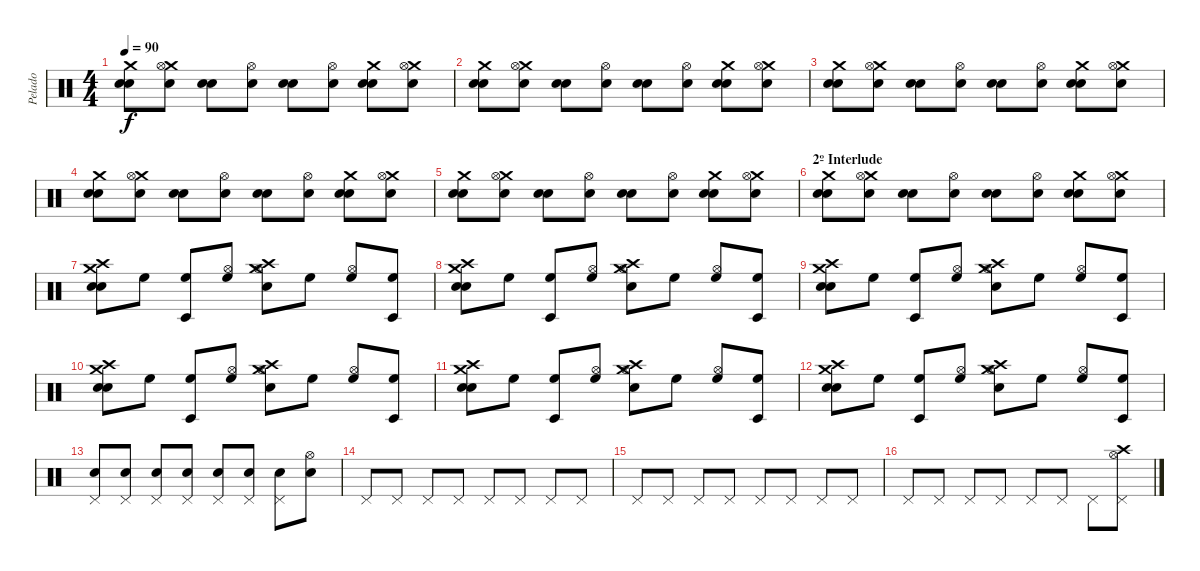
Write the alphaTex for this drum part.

\track ("Pelado" "Pelado") {instrument percussion}
\staff {score}
\articulation defaults
\ts (4 4)
\tempo 90
\clef neutral
\ks c
("Crash medium (hit)" "Electric Snare (hit)" "Electric Snare (hit)").8{dy f} ("Crash medium (hit)" "Hi-Hat (open)" "Electric Snare (hit)").8 ("Electric Snare (hit)" "Electric Snare (hit)").8 ("Electric Snare (hit)" "Hi-Hat (open)").8 ("Electric Snare (hit)" "Electric Snare (hit)").8 ("Electric Snare (hit)" "Hi-Hat (open)").8 ("Crash medium (hit)" "Electric Snare (hit)" "Electric Snare (hit)").8 ("Crash medium (hit)" "Electric Snare (hit)" "Hi-Hat (open)").8 |
("Crash medium (hit)" "Electric Snare (hit)" "Electric Snare (hit)").8 ("Crash medium (hit)" "Hi-Hat (open)" "Electric Snare (hit)").8 ("Electric Snare (hit)" "Electric Snare (hit)").8 ("Electric Snare (hit)" "Hi-Hat (open)").8 ("Electric Snare (hit)" "Electric Snare (hit)").8 ("Electric Snare (hit)" "Hi-Hat (open)").8 ("Crash medium (hit)" "Electric Snare (hit)" "Electric Snare (hit)").8 ("Crash medium (hit)" "Electric Snare (hit)" "Hi-Hat (open)").8 |
("Crash medium (hit)" "Electric Snare (hit)" "Electric Snare (hit)").8 ("Crash medium (hit)" "Hi-Hat (open)" "Electric Snare (hit)").8 ("Electric Snare (hit)" "Electric Snare (hit)").8 ("Electric Snare (hit)" "Hi-Hat (open)").8 ("Electric Snare (hit)" "Electric Snare (hit)").8 ("Electric Snare (hit)" "Hi-Hat (open)").8 ("Crash medium (hit)" "Electric Snare (hit)" "Electric Snare (hit)").8 ("Crash medium (hit)" "Electric Snare (hit)" "Hi-Hat (open)").8 |
("Crash medium (hit)" "Electric Snare (hit)" "Electric Snare (hit)").8 ("Crash medium (hit)" "Hi-Hat (open)" "Electric Snare (hit)").8 ("Electric Snare (hit)" "Electric Snare (hit)").8 ("Electric Snare (hit)" "Hi-Hat (open)").8 ("Electric Snare (hit)" "Electric Snare (hit)").8 ("Electric Snare (hit)" "Hi-Hat (open)").8 ("Crash medium (hit)" "Electric Snare (hit)" "Electric Snare (hit)").8 ("Crash medium (hit)" "Electric Snare (hit)" "Hi-Hat (open)").8 |
("Crash medium (hit)" "Electric Snare (hit)" "Electric Snare (hit)").8 ("Crash medium (hit)" "Hi-Hat (open)" "Electric Snare (hit)").8 ("Electric Snare (hit)" "Electric Snare (hit)").8 ("Electric Snare (hit)" "Hi-Hat (open)").8 ("Electric Snare (hit)" "Electric Snare (hit)").8 ("Electric Snare (hit)" "Hi-Hat (open)").8 ("Crash medium (hit)" "Electric Snare (hit)" "Electric Snare (hit)").8 ("Crash medium (hit)" "Electric Snare (hit)" "Hi-Hat (open)").8 |
\section ("" "2º Interlude")
("Crash medium (hit)" "Electric Snare (hit)" "Electric Snare (hit)").8 ("Crash medium (hit)" "Hi-Hat (open)" "Electric Snare (hit)").8 ("Electric Snare (hit)" "Electric Snare (hit)").8 ("Electric Snare (hit)" "Hi-Hat (open)").8 ("Electric Snare (hit)" "Electric Snare (hit)").8 ("Electric Snare (hit)" "Hi-Hat (open)").8 ("Crash medium (hit)" "Electric Snare (hit)" "Electric Snare (hit)").8 ("Crash medium (hit)" "Electric Snare (hit)" "Hi-Hat (open)").8 |
("Crash high (hit)" "Crash medium (hit)" "Electric Snare (hit)" "Electric Snare (hit)").8 "High Floor Tom (hit)".8 ("High Floor Tom (hit)" "Timbale low (hit)").8 ("High Floor Tom (hit)" "Hi-Hat (open)").8 ("Crash high (hit)" "Crash medium (hit)" "Electric Snare (hit)" "Hi-Hat (open)").8 "High Floor Tom (hit)".8 ("High Floor Tom (hit)" "Hi-Hat (open)").8 ("High Floor Tom (hit)" "Timbale low (hit)").8 |
("Crash high (hit)" "Crash medium (hit)" "Electric Snare (hit)" "Electric Snare (hit)").8 "High Floor Tom (hit)".8 ("High Floor Tom (hit)" "Timbale low (hit)").8 ("High Floor Tom (hit)" "Hi-Hat (open)").8 ("Crash high (hit)" "Crash medium (hit)" "Electric Snare (hit)" "Hi-Hat (open)").8 "High Floor Tom (hit)".8 ("High Floor Tom (hit)" "Hi-Hat (open)").8 ("High Floor Tom (hit)" "Timbale low (hit)").8 |
("Crash high (hit)" "Crash medium (hit)" "Electric Snare (hit)" "Electric Snare (hit)").8 "High Floor Tom (hit)".8 ("High Floor Tom (hit)" "Timbale low (hit)").8 ("High Floor Tom (hit)" "Hi-Hat (open)").8 ("Crash high (hit)" "Crash medium (hit)" "Electric Snare (hit)" "Hi-Hat (open)").8 "High Floor Tom (hit)".8 ("High Floor Tom (hit)" "Hi-Hat (open)").8 ("High Floor Tom (hit)" "Timbale low (hit)").8 |
("Crash high (hit)" "Crash medium (hit)" "Electric Snare (hit)" "Electric Snare (hit)").8 "High Floor Tom (hit)".8 ("High Floor Tom (hit)" "Timbale low (hit)").8 ("High Floor Tom (hit)" "Hi-Hat (open)").8 ("Crash high (hit)" "Crash medium (hit)" "Electric Snare (hit)" "Hi-Hat (open)").8 "High Floor Tom (hit)".8 ("High Floor Tom (hit)" "Hi-Hat (open)").8 ("High Floor Tom (hit)" "Timbale low (hit)").8 |
("Crash high (hit)" "Crash medium (hit)" "Electric Snare (hit)" "Electric Snare (hit)").8 "High Floor Tom (hit)".8 ("High Floor Tom (hit)" "Timbale low (hit)").8 ("High Floor Tom (hit)" "Hi-Hat (open)").8 ("Crash high (hit)" "Crash medium (hit)" "Electric Snare (hit)" "Hi-Hat (open)").8 "High Floor Tom (hit)".8 ("High Floor Tom (hit)" "Hi-Hat (open)").8 ("High Floor Tom (hit)" "Timbale low (hit)").8 |
("Crash high (hit)" "Crash medium (hit)" "Electric Snare (hit)" "Electric Snare (hit)").8 "High Floor Tom (hit)".8 ("High Floor Tom (hit)" "Timbale low (hit)").8 ("High Floor Tom (hit)" "Hi-Hat (open)").8 ("Crash high (hit)" "Crash medium (hit)" "Electric Snare (hit)" "Hi-Hat (open)").8 "High Floor Tom (hit)".8 ("High Floor Tom (hit)" "Hi-Hat (open)").8 ("High Floor Tom (hit)" "Timbale low (hit)").8 |
("Pedal Hi-Hat (hit)" "Electric Snare (hit)").8 ("Pedal Hi-Hat (hit)" "Electric Snare (hit)").8 ("Pedal Hi-Hat (hit)" "Electric Snare (hit)").8 ("Pedal Hi-Hat (hit)" "Electric Snare (hit)").8 ("Pedal Hi-Hat (hit)" "Electric Snare (hit)").8 ("Pedal Hi-Hat (hit)" "Electric Snare (hit)").8 ("Pedal Hi-Hat (hit)" "Electric Snare (hit)").8 ("Hi-Hat (open)" "Electric Snare (hit)").8 |
"Pedal Hi-Hat (hit)".8 "Pedal Hi-Hat (hit)".8 "Pedal Hi-Hat (hit)".8 "Pedal Hi-Hat (hit)".8 "Pedal Hi-Hat (hit)".8 "Pedal Hi-Hat (hit)".8 "Pedal Hi-Hat (hit)".8 "Pedal Hi-Hat (hit)".8 |
"Pedal Hi-Hat (hit)".8 "Pedal Hi-Hat (hit)".8 "Pedal Hi-Hat (hit)".8 "Pedal Hi-Hat (hit)".8 "Pedal Hi-Hat (hit)".8 "Pedal Hi-Hat (hit)".8 "Pedal Hi-Hat (hit)".8 "Pedal Hi-Hat (hit)".8 |
"Pedal Hi-Hat (hit)".8 "Pedal Hi-Hat (hit)".8 "Pedal Hi-Hat (hit)".8 "Pedal Hi-Hat (hit)".8 "Pedal Hi-Hat (hit)".8 "Pedal Hi-Hat (hit)".8 "Pedal Hi-Hat (hit)".8 ("Crash high (hit)" "Hi-Hat (open)" "Pedal Hi-Hat (hit)").8
